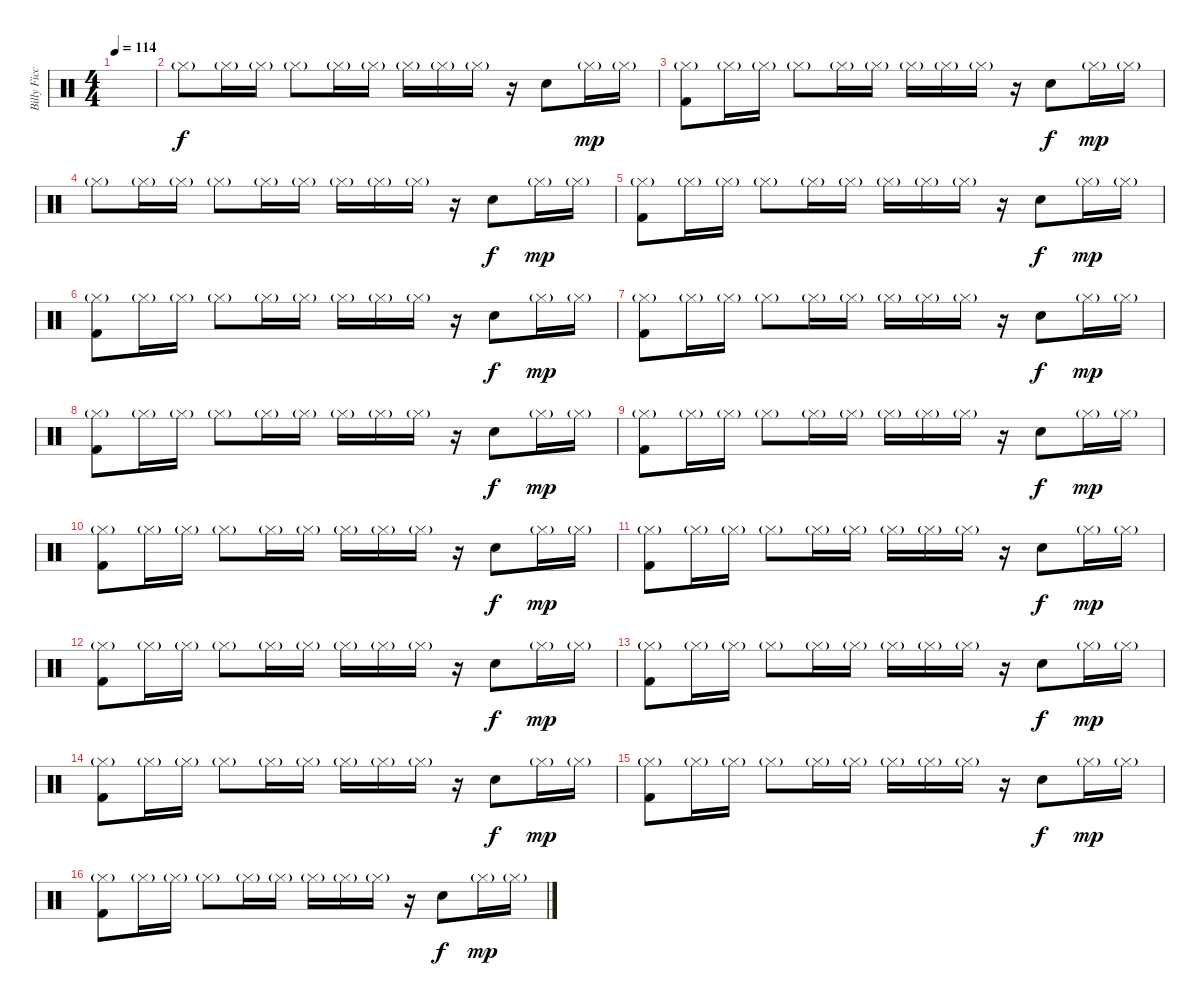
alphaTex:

\track ("Billy Ficca" "Billy Ficc") {instrument percussion}
\staff {score}
\articulation defaults
\ts (4 4)
\tempo 114
\clef neutral
\ks c
|
"Hi-Hat (closed)"{g}.8 "Hi-Hat (closed)"{g}.16 "Hi-Hat (closed)"{g}.16 "Hi-Hat (closed)"{g}.8 "Hi-Hat (closed)"{g}.16 "Hi-Hat (closed)"{g}.16 "Hi-Hat (closed)"{g}.16 "Hi-Hat (closed)"{g}.16 "Hi-Hat (closed)"{g}.16 r.16 "Electric Snare (hit)".8{dy f} "Hi-Hat (closed)"{g}.16{dy mp} "Hi-Hat (closed)"{g}.16 |
("Hi-Hat (closed)"{g} "Kick (hit) 2").8 "Hi-Hat (closed)"{g}.16 "Hi-Hat (closed)"{g}.16 "Hi-Hat (closed)"{g}.8 "Hi-Hat (closed)"{g}.16 "Hi-Hat (closed)"{g}.16 "Hi-Hat (closed)"{g}.16 "Hi-Hat (closed)"{g}.16 "Hi-Hat (closed)"{g}.16 r.16 "Electric Snare (hit)".8{dy f} "Hi-Hat (closed)"{g}.16{dy mp} "Hi-Hat (closed)"{g}.16 |
"Hi-Hat (closed)"{g}.8 "Hi-Hat (closed)"{g}.16 "Hi-Hat (closed)"{g}.16 "Hi-Hat (closed)"{g}.8 "Hi-Hat (closed)"{g}.16 "Hi-Hat (closed)"{g}.16 "Hi-Hat (closed)"{g}.16 "Hi-Hat (closed)"{g}.16 "Hi-Hat (closed)"{g}.16 r.16 "Electric Snare (hit)".8{dy f} "Hi-Hat (closed)"{g}.16{dy mp} "Hi-Hat (closed)"{g}.16 |
("Hi-Hat (closed)"{g} "Kick (hit) 2").8 "Hi-Hat (closed)"{g}.16 "Hi-Hat (closed)"{g}.16 "Hi-Hat (closed)"{g}.8 "Hi-Hat (closed)"{g}.16 "Hi-Hat (closed)"{g}.16 "Hi-Hat (closed)"{g}.16 "Hi-Hat (closed)"{g}.16 "Hi-Hat (closed)"{g}.16 r.16 "Electric Snare (hit)".8{dy f} "Hi-Hat (closed)"{g}.16{dy mp} "Hi-Hat (closed)"{g}.16 |
("Hi-Hat (closed)"{g} "Kick (hit) 2").8 "Hi-Hat (closed)"{g}.16 "Hi-Hat (closed)"{g}.16 "Hi-Hat (closed)"{g}.8 "Hi-Hat (closed)"{g}.16 "Hi-Hat (closed)"{g}.16 "Hi-Hat (closed)"{g}.16 "Hi-Hat (closed)"{g}.16 "Hi-Hat (closed)"{g}.16 r.16 "Electric Snare (hit)".8{dy f} "Hi-Hat (closed)"{g}.16{dy mp} "Hi-Hat (closed)"{g}.16 |
("Hi-Hat (closed)"{g} "Kick (hit) 2").8 "Hi-Hat (closed)"{g}.16 "Hi-Hat (closed)"{g}.16 "Hi-Hat (closed)"{g}.8 "Hi-Hat (closed)"{g}.16 "Hi-Hat (closed)"{g}.16 "Hi-Hat (closed)"{g}.16 "Hi-Hat (closed)"{g}.16 "Hi-Hat (closed)"{g}.16 r.16 "Electric Snare (hit)".8{dy f} "Hi-Hat (closed)"{g}.16{dy mp} "Hi-Hat (closed)"{g}.16 |
("Hi-Hat (closed)"{g} "Kick (hit) 2").8 "Hi-Hat (closed)"{g}.16 "Hi-Hat (closed)"{g}.16 "Hi-Hat (closed)"{g}.8 "Hi-Hat (closed)"{g}.16 "Hi-Hat (closed)"{g}.16 "Hi-Hat (closed)"{g}.16 "Hi-Hat (closed)"{g}.16 "Hi-Hat (closed)"{g}.16 r.16 "Electric Snare (hit)".8{dy f} "Hi-Hat (closed)"{g}.16{dy mp} "Hi-Hat (closed)"{g}.16 |
("Hi-Hat (closed)"{g} "Kick (hit) 2").8 "Hi-Hat (closed)"{g}.16 "Hi-Hat (closed)"{g}.16 "Hi-Hat (closed)"{g}.8 "Hi-Hat (closed)"{g}.16 "Hi-Hat (closed)"{g}.16 "Hi-Hat (closed)"{g}.16 "Hi-Hat (closed)"{g}.16 "Hi-Hat (closed)"{g}.16 r.16 "Electric Snare (hit)".8{dy f} "Hi-Hat (closed)"{g}.16{dy mp} "Hi-Hat (closed)"{g}.16 |
("Hi-Hat (closed)"{g} "Kick (hit) 2").8 "Hi-Hat (closed)"{g}.16 "Hi-Hat (closed)"{g}.16 "Hi-Hat (closed)"{g}.8 "Hi-Hat (closed)"{g}.16 "Hi-Hat (closed)"{g}.16 "Hi-Hat (closed)"{g}.16 "Hi-Hat (closed)"{g}.16 "Hi-Hat (closed)"{g}.16 r.16 "Electric Snare (hit)".8{dy f} "Hi-Hat (closed)"{g}.16{dy mp} "Hi-Hat (closed)"{g}.16 |
("Hi-Hat (closed)"{g} "Kick (hit) 2").8 "Hi-Hat (closed)"{g}.16 "Hi-Hat (closed)"{g}.16 "Hi-Hat (closed)"{g}.8 "Hi-Hat (closed)"{g}.16 "Hi-Hat (closed)"{g}.16 "Hi-Hat (closed)"{g}.16 "Hi-Hat (closed)"{g}.16 "Hi-Hat (closed)"{g}.16 r.16 "Electric Snare (hit)".8{dy f} "Hi-Hat (closed)"{g}.16{dy mp} "Hi-Hat (closed)"{g}.16 |
("Hi-Hat (closed)"{g} "Kick (hit) 2").8 "Hi-Hat (closed)"{g}.16 "Hi-Hat (closed)"{g}.16 "Hi-Hat (closed)"{g}.8 "Hi-Hat (closed)"{g}.16 "Hi-Hat (closed)"{g}.16 "Hi-Hat (closed)"{g}.16 "Hi-Hat (closed)"{g}.16 "Hi-Hat (closed)"{g}.16 r.16 "Electric Snare (hit)".8{dy f} "Hi-Hat (closed)"{g}.16{dy mp} "Hi-Hat (closed)"{g}.16 |
("Hi-Hat (closed)"{g} "Kick (hit) 2").8 "Hi-Hat (closed)"{g}.16 "Hi-Hat (closed)"{g}.16 "Hi-Hat (closed)"{g}.8 "Hi-Hat (closed)"{g}.16 "Hi-Hat (closed)"{g}.16 "Hi-Hat (closed)"{g}.16 "Hi-Hat (closed)"{g}.16 "Hi-Hat (closed)"{g}.16 r.16 "Electric Snare (hit)".8{dy f} "Hi-Hat (closed)"{g}.16{dy mp} "Hi-Hat (closed)"{g}.16 |
("Hi-Hat (closed)"{g} "Kick (hit) 2").8 "Hi-Hat (closed)"{g}.16 "Hi-Hat (closed)"{g}.16 "Hi-Hat (closed)"{g}.8 "Hi-Hat (closed)"{g}.16 "Hi-Hat (closed)"{g}.16 "Hi-Hat (closed)"{g}.16 "Hi-Hat (closed)"{g}.16 "Hi-Hat (closed)"{g}.16 r.16 "Electric Snare (hit)".8{dy f} "Hi-Hat (closed)"{g}.16{dy mp} "Hi-Hat (closed)"{g}.16 |
("Hi-Hat (closed)"{g} "Kick (hit) 2").8 "Hi-Hat (closed)"{g}.16 "Hi-Hat (closed)"{g}.16 "Hi-Hat (closed)"{g}.8 "Hi-Hat (closed)"{g}.16 "Hi-Hat (closed)"{g}.16 "Hi-Hat (closed)"{g}.16 "Hi-Hat (closed)"{g}.16 "Hi-Hat (closed)"{g}.16 r.16 "Electric Snare (hit)".8{dy f} "Hi-Hat (closed)"{g}.16{dy mp} "Hi-Hat (closed)"{g}.16 |
("Hi-Hat (closed)"{g} "Kick (hit) 2").8 "Hi-Hat (closed)"{g}.16 "Hi-Hat (closed)"{g}.16 "Hi-Hat (closed)"{g}.8 "Hi-Hat (closed)"{g}.16 "Hi-Hat (closed)"{g}.16 "Hi-Hat (closed)"{g}.16 "Hi-Hat (closed)"{g}.16 "Hi-Hat (closed)"{g}.16 r.16 "Electric Snare (hit)".8{dy f} "Hi-Hat (closed)"{g}.16{dy mp} "Hi-Hat (closed)"{g}.16
